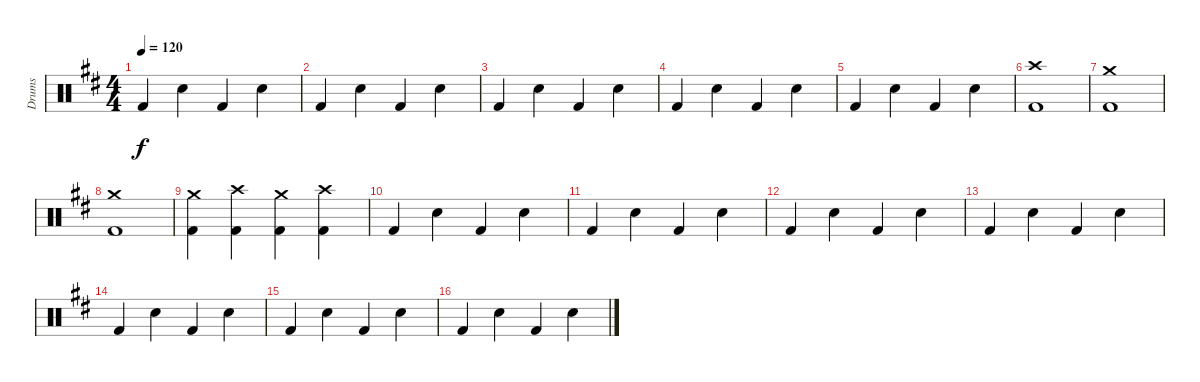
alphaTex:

\track ("Drums" "Drums") {instrument percussion}
\staff {score}
\articulation defaults
\ts (4 4)
\tempo 120
\clef neutral
\ks d "Kick (hit) 2".4{dy f} "Snare (hit) 2".4 "Kick (hit) 2".4 "Snare (hit) 2".4
|
"Kick (hit) 2".4 "Snare (hit) 2".4 "Kick (hit) 2".4 "Snare (hit) 2".4 |
"Kick (hit) 2".4 "Snare (hit) 2".4 "Kick (hit) 2".4 "Snare (hit) 2".4 |
"Kick (hit) 2".4 "Snare (hit) 2".4 "Kick (hit) 2".4 "Snare (hit) 2".4 |
"Kick (hit) 2".4 "Snare (hit) 2".4 "Kick (hit) 2".4 "Snare (hit) 2".4 |
("Kick (hit) 2" "Crash high (hit)").1 |
("Kick (hit) 2" "Crash medium (hit)").1 |
("Kick (hit) 2" "Crash medium (hit)").1 |
("Kick (hit) 2" "Crash medium (hit)").4 ("Kick (hit) 2" "Crash high (hit)").4 ("Kick (hit) 2" "Crash medium (hit)").4 ("Kick (hit) 2" "Crash high (hit)").4 |
"Kick (hit) 2".4 "Snare (hit) 2".4 "Kick (hit) 2".4 "Snare (hit) 2".4 |
"Kick (hit) 2".4 "Snare (hit) 2".4 "Kick (hit) 2".4 "Snare (hit) 2".4 |
"Kick (hit) 2".4 "Snare (hit) 2".4 "Kick (hit) 2".4 "Snare (hit) 2".4 |
"Kick (hit) 2".4 "Snare (hit) 2".4 "Kick (hit) 2".4 "Snare (hit) 2".4 |
"Kick (hit) 2".4 "Snare (hit) 2".4 "Kick (hit) 2".4 "Snare (hit) 2".4 |
"Kick (hit) 2".4 "Snare (hit) 2".4 "Kick (hit) 2".4 "Snare (hit) 2".4 |
"Kick (hit) 2".4 "Snare (hit) 2".4 "Kick (hit) 2".4 "Snare (hit) 2".4
